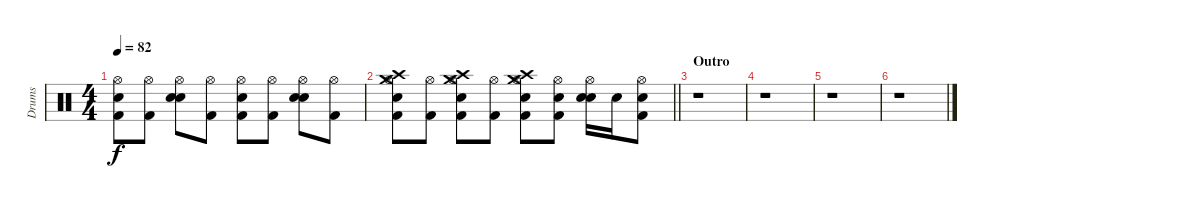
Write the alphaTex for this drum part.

\track ("Drums" "Drums") {instrument percussion}
\staff {score}
\articulation defaults
\ts (4 4)
\tempo 82
\clef neutral
\ks c
("Hi-Hat (open)" "Snare (hit) 2" "Kick (hit) 2").8{dy f} ("Hi-Hat (open)" "Kick (hit) 2").8 ("Hi-Hat (open)" "Snare (hit) 2" "Electric Snare (hit)").8 ("Hi-Hat (open)" "Kick (hit) 2").8 ("Hi-Hat (open)" "Snare (hit) 2" "Kick (hit) 2").8 ("Hi-Hat (open)" "Kick (hit) 2").8 ("Hi-Hat (open)" "Snare (hit) 2" "Electric Snare (hit)").8 ("Hi-Hat (open)" "Kick (hit) 2").8 |
\barLineRight lightlight
("Hi-Hat (open)" "Crash high (hit)" "Kick (hit) 2" "Crash medium (hit)" "Snare (hit) 2").8 ("Hi-Hat (open)" "Kick (hit) 2").8 ("Hi-Hat (open)" "Crash high (hit)" "Kick (hit) 2" "Crash medium (hit)" "Snare (hit) 2").8 ("Hi-Hat (open)" "Kick (hit) 2").8 ("Hi-Hat (open)" "Crash high (hit)" "Kick (hit) 2" "Crash medium (hit)" "Snare (hit) 2").8 ("Hi-Hat (open)" "Kick (hit) 2" "Snare (hit) 2").8 ("Hi-Hat (open)" "Electric Snare (hit)" "Snare (hit) 2").16 "Snare (hit) 2".16 ("Hi-Hat (open)" "Kick (hit) 2" "Snare (hit) 2").8 |
\section ("" "Outro")
r.1 |
r.1 |
r.1 |
r.1
